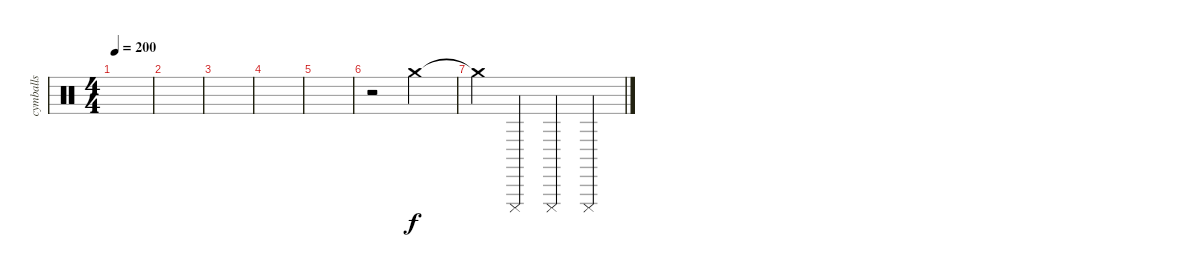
\track ("cymballs" "cymballs") {instrument percussion}
\staff {score}
\articulation defaults
\ts (4 4)
\tempo 200
\clef neutral
\ks c
|
|
|
|
|
r.2 "Crash medium (hit)".2 |
"Crash medium (hit)"{t}.4 "Cuica (mute)".4 "Cuica (mute)".4 "Cuica (mute)".4
